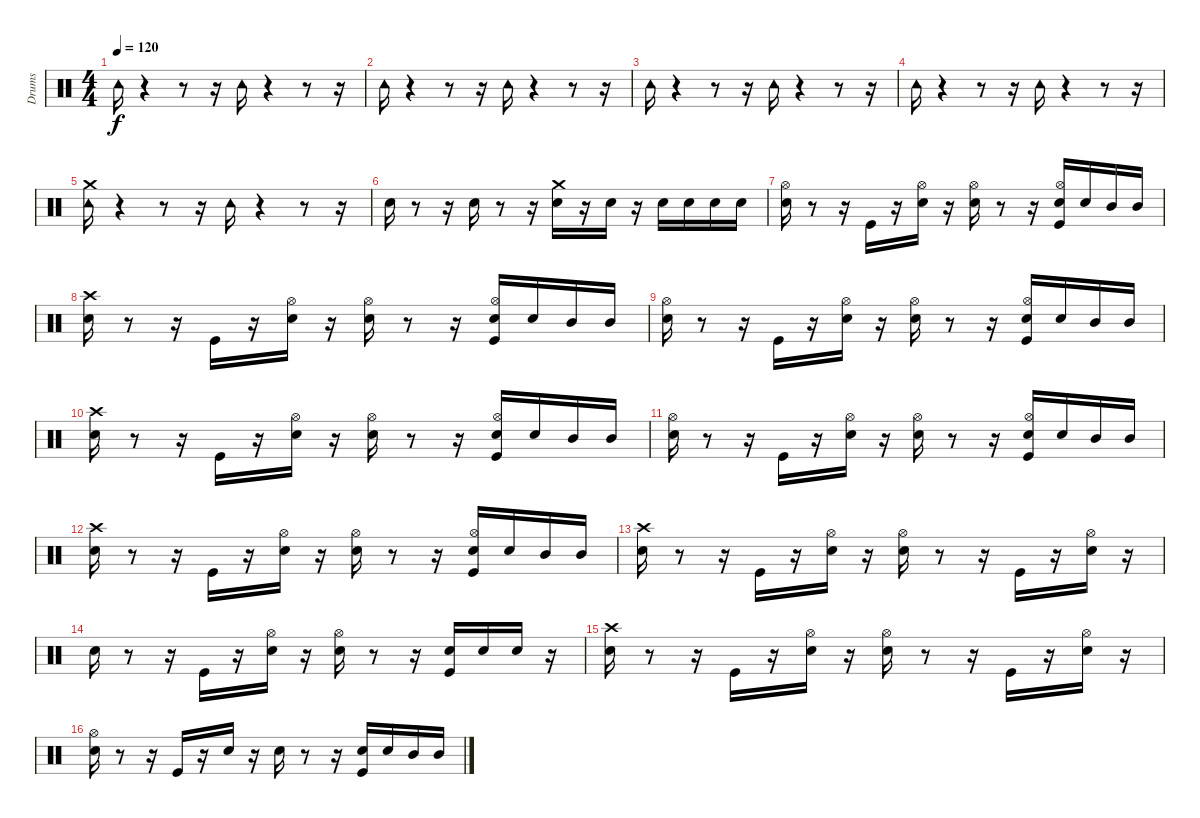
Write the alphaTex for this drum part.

\track ("Drums" "Drums") {instrument percussion}
\staff {score}
\articulation defaults
\ts (4 4)
\tempo 120
\clef neutral
\ks c "Tambourine (hit)".16{dy f}
r.4 r.8 r.16 "Tambourine (hit)".16 r.4 r.8 r.16 |
"Tambourine (hit)".16 r.4 r.8 r.16 "Tambourine (hit)".16 r.4 r.8 r.16 |
"Tambourine (hit)".16 r.4 r.8 r.16 "Tambourine (hit)".16 r.4 r.8 r.16 |
"Tambourine (hit)".16 r.4 r.8 r.16 "Tambourine (hit)".16 r.4 r.8 r.16 |
("Crash medium (hit)" "Tambourine (hit)").16 r.4 r.8 r.16 "Tambourine (hit)".16 r.4 r.8 r.16 |
"Snare (hit) 2".16 r.8 r.16 "Snare (hit) 2".16 r.8 r.16 ("Snare (hit) 2" "Crash medium (hit)").16 r.16 "Snare (hit) 2".16 r.16 "Snare (hit) 2".16 "Snare (hit) 2".16 "Snare (hit) 2".16 "Snare (hit) 2".16 |
("Hi-Hat (open)" "Electric Snare (hit)").16 r.8 r.16 "Kick (hit)".16 r.16 ("Hi-Hat (open)" "Electric Snare (hit)").16 r.16 ("Hi-Hat (open)" "Electric Snare (hit)").16 r.8 r.16 ("Hi-Hat (open)" "Kick (hit)" "Snare (hit) 2").16 "Snare (hit) 2".16 "Mid Tom (hit)".16 "Mid Tom (hit)".16 |
("Crash high (hit)" "Electric Snare (hit)").16 r.8 r.16 "Kick (hit)".16 r.16 ("Hi-Hat (open)" "Electric Snare (hit)").16 r.16 ("Hi-Hat (open)" "Electric Snare (hit)").16 r.8 r.16 ("Hi-Hat (open)" "Kick (hit)" "Snare (hit) 2").16 "Snare (hit) 2".16 "Mid Tom (hit)".16 "Mid Tom (hit)".16 |
("Hi-Hat (open)" "Electric Snare (hit)").16 r.8 r.16 "Kick (hit)".16 r.16 ("Hi-Hat (open)" "Electric Snare (hit)").16 r.16 ("Hi-Hat (open)" "Electric Snare (hit)").16 r.8 r.16 ("Hi-Hat (open)" "Kick (hit)" "Snare (hit) 2").16 "Snare (hit) 2".16 "Mid Tom (hit)".16 "Mid Tom (hit)".16 |
("Crash high (hit)" "Electric Snare (hit)").16 r.8 r.16 "Kick (hit)".16 r.16 ("Hi-Hat (open)" "Electric Snare (hit)").16 r.16 ("Hi-Hat (open)" "Electric Snare (hit)").16 r.8 r.16 ("Hi-Hat (open)" "Kick (hit)" "Snare (hit) 2").16 "Snare (hit) 2".16 "Mid Tom (hit)".16 "Mid Tom (hit)".16 |
("Hi-Hat (open)" "Electric Snare (hit)").16 r.8 r.16 "Kick (hit)".16 r.16 ("Hi-Hat (open)" "Electric Snare (hit)").16 r.16 ("Hi-Hat (open)" "Electric Snare (hit)").16 r.8 r.16 ("Hi-Hat (open)" "Kick (hit)" "Snare (hit) 2").16 "Snare (hit) 2".16 "Mid Tom (hit)".16 "Mid Tom (hit)".16 |
("Crash high (hit)" "Electric Snare (hit)").16 r.8 r.16 "Kick (hit)".16 r.16 ("Hi-Hat (open)" "Electric Snare (hit)").16 r.16 ("Hi-Hat (open)" "Electric Snare (hit)").16 r.8 r.16 ("Hi-Hat (open)" "Kick (hit)" "Snare (hit) 2").16 "Snare (hit) 2".16 "Mid Tom (hit)".16 "Mid Tom (hit)".16 |
("Crash high (hit)" "Electric Snare (hit)").16 r.8 r.16 "Kick (hit)".16 r.16 ("Hi-Hat (open)" "Electric Snare (hit)").16 r.16 ("Hi-Hat (open)" "Electric Snare (hit)").16 r.8 r.16 "Kick (hit)".16 r.16 ("Hi-Hat (open)" "Electric Snare (hit)").16 r.16 |
"Electric Snare (hit)".16 r.8 r.16 "Kick (hit)".16 r.16 ("Hi-Hat (open)" "Electric Snare (hit)").16 r.16 ("Hi-Hat (open)" "Electric Snare (hit)").16 r.8 r.16 ("Snare (hit) 2" "Kick (hit)").16 "Snare (hit) 2".16 "Electric Snare (hit)".16 r.16 |
("Crash high (hit)" "Electric Snare (hit)").16 r.8 r.16 "Kick (hit)".16 r.16 ("Hi-Hat (open)" "Electric Snare (hit)").16 r.16 ("Hi-Hat (open)" "Electric Snare (hit)").16 r.8 r.16 "Kick (hit)".16 r.16 ("Hi-Hat (open)" "Electric Snare (hit)").16 r.16 |
("Hi-Hat (open)" "Electric Snare (hit)").16 r.8 r.16 "Kick (hit)".16 r.16 "Electric Snare (hit)".16 r.16 "Electric Snare (hit)".16 r.8 r.16 ("Snare (hit) 2" "Kick (hit)").16 "Snare (hit) 2".16 "Mid Tom (hit)".16 "Mid Tom (hit)".16
